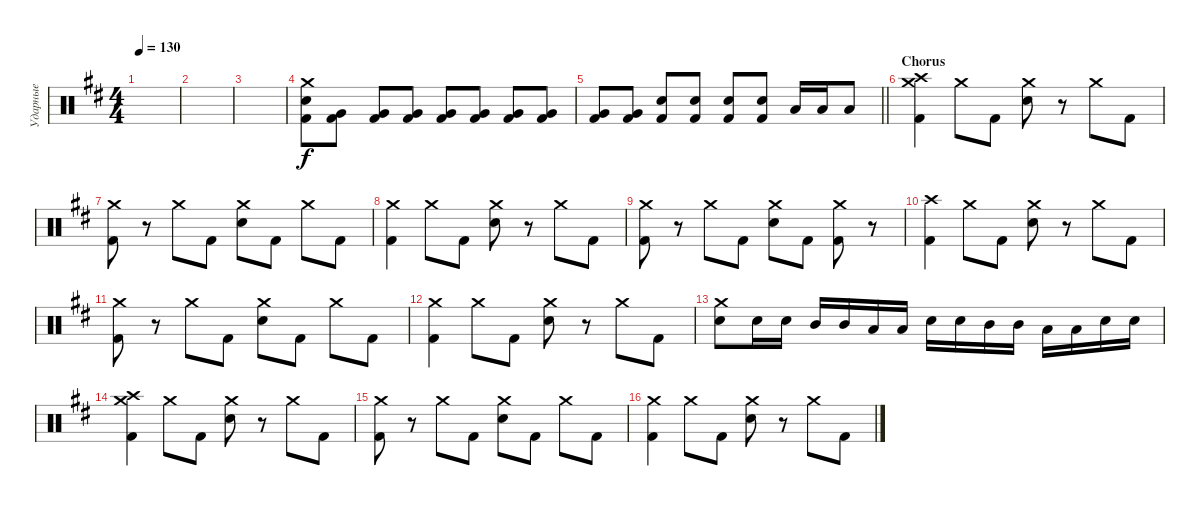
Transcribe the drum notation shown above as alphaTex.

\track ("Ударные" "Ударные") {instrument percussion}
\staff {score}
\articulation defaults
\ts (4 4)
\tempo 130
\clef neutral
\ks d
|
|
|
("Crash medium (hit)" "Electric Snare (hit)" "Kick (hit) 2").8 ("Very Low Tom (hit)" "Kick (hit) 2").8 ("Very Low Tom (hit)" "Kick (hit) 2").8 ("Very Low Tom (hit)" "Kick (hit) 2").8 ("Very Low Tom (hit)" "Kick (hit) 2").8 ("Very Low Tom (hit)" "Kick (hit) 2").8 ("Very Low Tom (hit)" "Kick (hit) 2").8 ("Very Low Tom (hit)" "Kick (hit) 2").8 |
\barLineRight lightlight
("Very Low Tom (hit)" "Kick (hit) 2").8 ("Very Low Tom (hit)" "Kick (hit) 2").8 ("Electric Snare (hit)" "Kick (hit) 2").8 ("Electric Snare (hit)" "Kick (hit) 2").8 ("Electric Snare (hit)" "Kick (hit) 2").8 ("Electric Snare (hit)" "Kick (hit) 2").8 "Low Tom (hit)".16 "Low Tom (hit)".16 "Low Tom (hit)".8 |
\section ("" "Chorus")
("Crash medium (hit)" "Crash high (hit)" "Kick (hit) 2").4 "Crash medium (hit)".8 "Kick (hit) 2".8 ("Crash medium (hit)" "Electric Snare (hit)").8 r.8 "Crash medium (hit)".8 "Kick (hit) 2".8 |
("Crash medium (hit)" "Kick (hit) 2").8 r.8 "Crash medium (hit)".8 "Kick (hit) 2".8 ("Crash medium (hit)" "Electric Snare (hit)").8 "Kick (hit) 2".8 "Crash medium (hit)".8 "Kick (hit) 2".8 |
("Crash medium (hit)" "Kick (hit) 2").4 "Crash medium (hit)".8 "Kick (hit) 2".8 ("Crash medium (hit)" "Electric Snare (hit)").8 r.8 "Crash medium (hit)".8 "Kick (hit) 2".8 |
("Crash medium (hit)" "Kick (hit) 2").8 r.8 "Crash medium (hit)".8 "Kick (hit) 2".8 ("Crash medium (hit)" "Electric Snare (hit)").8 "Kick (hit) 2".8 ("Crash medium (hit)" "Kick (hit) 2").8 r.8 |
("Crash high (hit)" "Kick (hit) 2").4 "Crash medium (hit)".8 "Kick (hit) 2".8 ("Crash medium (hit)" "Electric Snare (hit)").8 r.8 "Crash medium (hit)".8 "Kick (hit) 2".8 |
("Crash medium (hit)" "Kick (hit) 2").8 r.8 "Crash medium (hit)".8 "Kick (hit) 2".8 ("Crash medium (hit)" "Electric Snare (hit)").8 "Kick (hit) 2".8 "Crash medium (hit)".8 "Kick (hit) 2".8 |
("Crash medium (hit)" "Kick (hit) 2").4 "Crash medium (hit)".8 "Kick (hit) 2".8 ("Crash medium (hit)" "Electric Snare (hit)").8 r.8 "Crash medium (hit)".8 "Kick (hit) 2".8 |
("Crash medium (hit)" "Electric Snare (hit)").8 "Electric Snare (hit)".16 "Electric Snare (hit)".16 "Mid Tom (hit)".16 "Mid Tom (hit)".16 "Low Tom (hit)".16 "Low Tom (hit)".16 "Electric Snare (hit)".16 "Electric Snare (hit)".16 "Mid Tom (hit)".16 "Mid Tom (hit)".16 "Low Tom (hit)".16 "Low Tom (hit)".16 "Electric Snare (hit)".16 "Electric Snare (hit)".16 |
("Crash medium (hit)" "Crash high (hit)" "Kick (hit) 2").4 "Crash medium (hit)".8 "Kick (hit) 2".8 ("Crash medium (hit)" "Electric Snare (hit)").8 r.8 "Crash medium (hit)".8 "Kick (hit) 2".8 |
("Crash medium (hit)" "Kick (hit) 2").8 r.8 "Crash medium (hit)".8 "Kick (hit) 2".8 ("Crash medium (hit)" "Electric Snare (hit)").8 "Kick (hit) 2".8 "Crash medium (hit)".8 "Kick (hit) 2".8 |
("Crash medium (hit)" "Kick (hit) 2").4 "Crash medium (hit)".8 "Kick (hit) 2".8 ("Crash medium (hit)" "Electric Snare (hit)").8 r.8 "Crash medium (hit)".8 "Kick (hit) 2".8
